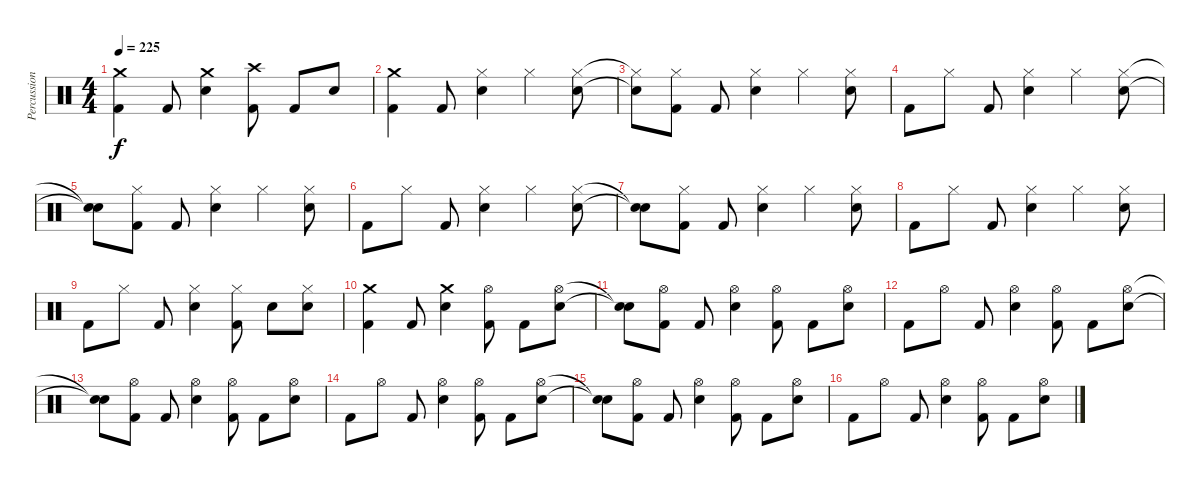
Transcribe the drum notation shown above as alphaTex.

\track ("Percussion" "Percussion") {instrument percussion}
\staff {score}
\articulation defaults
\ts (4 4)
\tempo 225
\clef neutral
\ks c
("Crash medium (hit)" "Kick (hit) 2").4{dy f} "Kick (hit) 2".8 ("Crash medium (hit)" "Snare (hit) 2").4 ("Crash high (hit)" "Kick (hit) 2").8 "Kick (hit) 2".8 "Snare (hit) 2".8 |
("Crash medium (hit)" "Kick (hit) 2").4 "Kick (hit) 2".8 ("Hi-Hat (closed)" "Snare (hit) 2").4 "Hi-Hat (closed)".4 ("Hi-Hat (closed)" "Snare (hit) 2").8 |
("Hi-Hat (closed)"{t} "Snare (hit)"{t}).8 ("Hi-Hat (closed)" "Kick (hit) 2").8 "Kick (hit) 2".8 ("Hi-Hat (closed)" "Snare (hit) 2").4 "Hi-Hat (closed)".4 ("Hi-Hat (closed)" "Snare (hit) 2").8 |
"Kick (hit) 2".8 "Hi-Hat (closed)".8 "Kick (hit) 2".8 ("Hi-Hat (closed)" "Snare (hit) 2").4 "Hi-Hat (closed)".4 ("Hi-Hat (closed)" "Snare (hit) 2").8 |
("Snare (hit)"{t} "Snare (hit)"{t}).8 ("Hi-Hat (closed)" "Kick (hit) 2").8 "Kick (hit) 2".8 ("Hi-Hat (closed)" "Snare (hit) 2").4 "Hi-Hat (closed)".4 ("Hi-Hat (closed)" "Snare (hit) 2").8 |
"Kick (hit) 2".8 "Hi-Hat (closed)".8 "Kick (hit) 2".8 ("Hi-Hat (closed)" "Snare (hit) 2").4 "Hi-Hat (closed)".4 ("Hi-Hat (closed)" "Snare (hit) 2").8 |
("Snare (hit)"{t} "Snare (hit)"{t}).8 ("Hi-Hat (closed)" "Kick (hit) 2").8 "Kick (hit) 2".8 ("Hi-Hat (closed)" "Snare (hit) 2").4 "Hi-Hat (closed)".4 ("Hi-Hat (closed)" "Snare (hit) 2").8 |
"Kick (hit) 2".8 "Hi-Hat (closed)".8 "Kick (hit) 2".8 ("Hi-Hat (closed)" "Snare (hit) 2").4 "Hi-Hat (closed)".4 ("Hi-Hat (closed)" "Snare (hit) 2").8 |
"Kick (hit) 2".8 "Hi-Hat (closed)".8 "Kick (hit) 2".8 ("Hi-Hat (closed)" "Snare (hit) 2").4 ("Hi-Hat (closed)" "Kick (hit) 2").8 "Snare (hit) 2".8 ("Hi-Hat (closed)" "Snare (hit) 2").8 |
("Crash medium (hit)" "Kick (hit) 2").4 "Kick (hit) 2".8 ("Crash medium (hit)" "Snare (hit) 2").4 ("Hi-Hat (open)" "Kick (hit) 2").8 "Kick (hit) 2".8 ("Hi-Hat (open)" "Snare (hit) 2").8 |
("Snare (hit)"{t} "Snare (hit)"{t}).8 ("Hi-Hat (open)" "Kick (hit) 2").8 "Kick (hit) 2".8 ("Hi-Hat (open)" "Snare (hit) 2").4 ("Hi-Hat (open)" "Kick (hit) 2").8 "Kick (hit) 2".8 ("Hi-Hat (open)" "Snare (hit) 2").8 |
"Kick (hit) 2".8 "Hi-Hat (open)".8 "Kick (hit) 2".8 ("Hi-Hat (open)" "Snare (hit) 2").4 ("Hi-Hat (open)" "Kick (hit) 2").8 "Kick (hit) 2".8 ("Hi-Hat (open)" "Snare (hit) 2").8 |
("Snare (hit)"{t} "Snare (hit)"{t}).8 ("Hi-Hat (open)" "Kick (hit) 2").8 "Kick (hit) 2".8 ("Hi-Hat (open)" "Snare (hit) 2").4 ("Hi-Hat (open)" "Kick (hit) 2").8 "Kick (hit) 2".8 ("Hi-Hat (open)" "Snare (hit) 2").8 |
"Kick (hit) 2".8 "Hi-Hat (open)".8 "Kick (hit) 2".8 ("Hi-Hat (open)" "Snare (hit) 2").4 ("Hi-Hat (open)" "Kick (hit) 2").8 "Kick (hit) 2".8 ("Hi-Hat (open)" "Snare (hit) 2").8 |
("Snare (hit)"{t} "Snare (hit)"{t}).8 ("Hi-Hat (open)" "Kick (hit) 2").8 "Kick (hit) 2".8 ("Hi-Hat (open)" "Snare (hit) 2").4 ("Hi-Hat (open)" "Kick (hit) 2").8 "Kick (hit) 2".8 ("Hi-Hat (open)" "Snare (hit) 2").8 |
"Kick (hit) 2".8 "Hi-Hat (open)".8 "Kick (hit) 2".8 ("Hi-Hat (open)" "Snare (hit) 2").4 ("Hi-Hat (open)" "Kick (hit) 2").8 "Kick (hit) 2".8 ("Hi-Hat (open)" "Snare (hit) 2").8
